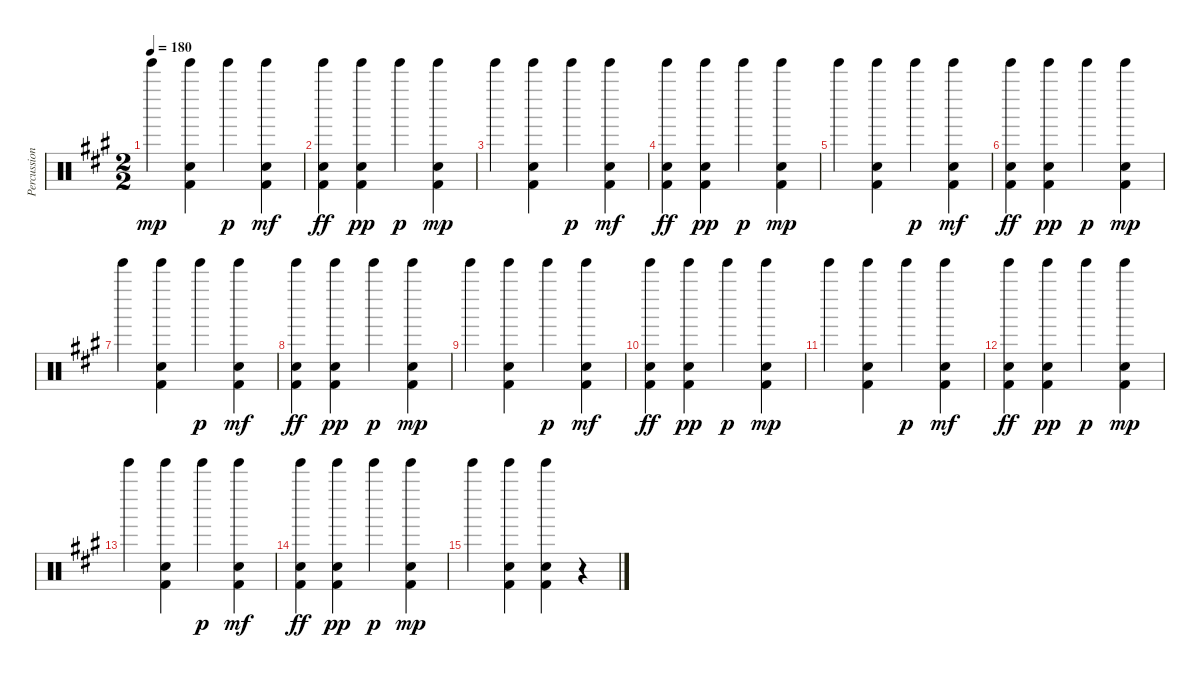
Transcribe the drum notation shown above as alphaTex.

\track ("Percussion" "Percussion") {instrument percussion}
\staff {score}
\articulation defaults
\ts (2 2)
\tempo 180
\clef neutral
\ks a "Tinkle Bell (hit)".4{dy mp}
("Tinkle Bell (hit)" "Electric Snare (hit)" "Kick (hit) 2").4 "Tinkle Bell (hit)".4{dy p} ("Tinkle Bell (hit)" "Electric Snare (hit)" "Kick (hit) 2").4{dy mf} |
("Tinkle Bell (hit)" "Electric Snare (hit)" "Kick (hit) 2").4{dy ff} ("Tinkle Bell (hit)" "Electric Snare (hit)" "Kick (hit) 2").4{dy pp} "Tinkle Bell (hit)".4{dy p} ("Tinkle Bell (hit)" "Electric Snare (hit)" "Kick (hit) 2").4{dy mp} |
"Tinkle Bell (hit)".4 ("Tinkle Bell (hit)" "Electric Snare (hit)" "Kick (hit) 2").4 "Tinkle Bell (hit)".4{dy p} ("Tinkle Bell (hit)" "Electric Snare (hit)" "Kick (hit) 2").4{dy mf} |
("Tinkle Bell (hit)" "Electric Snare (hit)" "Kick (hit) 2").4{dy ff} ("Tinkle Bell (hit)" "Electric Snare (hit)" "Kick (hit) 2").4{dy pp} "Tinkle Bell (hit)".4{dy p} ("Tinkle Bell (hit)" "Electric Snare (hit)" "Kick (hit) 2").4{dy mp} |
"Tinkle Bell (hit)".4 ("Tinkle Bell (hit)" "Electric Snare (hit)" "Kick (hit) 2").4 "Tinkle Bell (hit)".4{dy p} ("Tinkle Bell (hit)" "Electric Snare (hit)" "Kick (hit) 2").4{dy mf} |
("Tinkle Bell (hit)" "Electric Snare (hit)" "Kick (hit) 2").4{dy ff} ("Tinkle Bell (hit)" "Electric Snare (hit)" "Kick (hit) 2").4{dy pp} "Tinkle Bell (hit)".4{dy p} ("Tinkle Bell (hit)" "Electric Snare (hit)" "Kick (hit) 2").4{dy mp} |
"Tinkle Bell (hit)".4 ("Tinkle Bell (hit)" "Electric Snare (hit)" "Kick (hit) 2").4 "Tinkle Bell (hit)".4{dy p} ("Tinkle Bell (hit)" "Electric Snare (hit)" "Kick (hit) 2").4{dy mf} |
("Tinkle Bell (hit)" "Electric Snare (hit)" "Kick (hit) 2").4{dy ff} ("Tinkle Bell (hit)" "Electric Snare (hit)" "Kick (hit) 2").4{dy pp} "Tinkle Bell (hit)".4{dy p} ("Tinkle Bell (hit)" "Electric Snare (hit)" "Kick (hit) 2").4{dy mp} |
"Tinkle Bell (hit)".4 ("Tinkle Bell (hit)" "Electric Snare (hit)" "Kick (hit) 2").4 "Tinkle Bell (hit)".4{dy p} ("Tinkle Bell (hit)" "Electric Snare (hit)" "Kick (hit) 2").4{dy mf} |
("Tinkle Bell (hit)" "Electric Snare (hit)" "Kick (hit) 2").4{dy ff} ("Tinkle Bell (hit)" "Electric Snare (hit)" "Kick (hit) 2").4{dy pp} "Tinkle Bell (hit)".4{dy p} ("Tinkle Bell (hit)" "Electric Snare (hit)" "Kick (hit) 2").4{dy mp} |
"Tinkle Bell (hit)".4 ("Tinkle Bell (hit)" "Electric Snare (hit)" "Kick (hit) 2").4 "Tinkle Bell (hit)".4{dy p} ("Tinkle Bell (hit)" "Electric Snare (hit)" "Kick (hit) 2").4{dy mf} |
("Tinkle Bell (hit)" "Electric Snare (hit)" "Kick (hit) 2").4{dy ff} ("Tinkle Bell (hit)" "Electric Snare (hit)" "Kick (hit) 2").4{dy pp} "Tinkle Bell (hit)".4{dy p} ("Tinkle Bell (hit)" "Electric Snare (hit)" "Kick (hit) 2").4{dy mp} |
"Tinkle Bell (hit)".4 ("Tinkle Bell (hit)" "Electric Snare (hit)" "Kick (hit) 2").4 "Tinkle Bell (hit)".4{dy p} ("Tinkle Bell (hit)" "Electric Snare (hit)" "Kick (hit) 2").4{dy mf} |
("Tinkle Bell (hit)" "Electric Snare (hit)" "Kick (hit) 2").4{dy ff} ("Tinkle Bell (hit)" "Electric Snare (hit)" "Kick (hit) 2").4{dy pp} "Tinkle Bell (hit)".4{dy p} ("Tinkle Bell (hit)" "Electric Snare (hit)" "Kick (hit) 2").4{dy mp} |
"Tinkle Bell (hit)".4 ("Tinkle Bell (hit)" "Electric Snare (hit)" "Kick (hit) 2").4 ("Tinkle Bell (hit)" "Snare (hit) 2" "Kick (hit) 2").4 r.4
